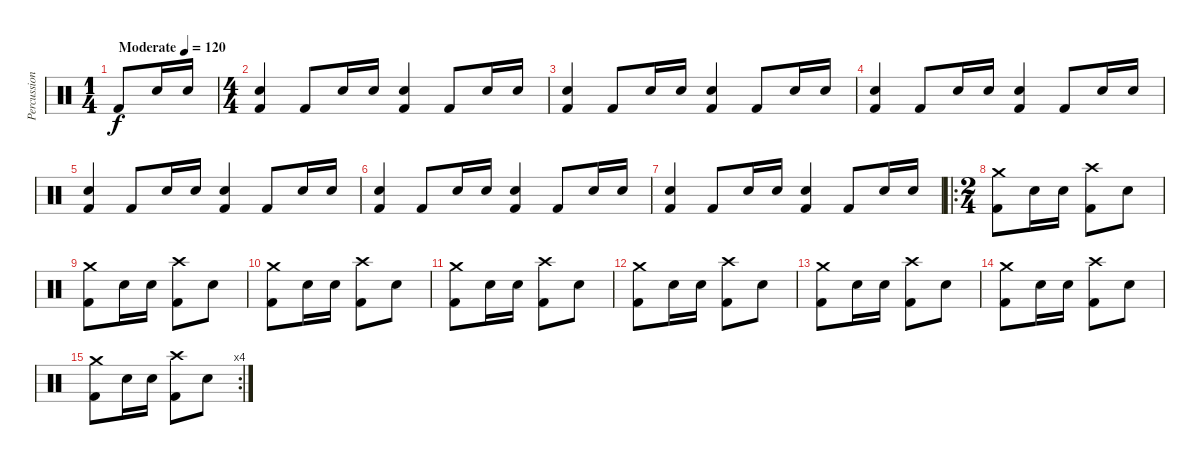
\track ("Percussion" "Percussion") {instrument percussion}
\staff {score}
\articulation defaults
\ts (1 4)
\tempo (120 "Moderate")
\clef neutral
\ks c "Kick (hit) 2".8{dy f} "Snare (hit) 2".16 "Snare (hit) 2".16
|
\ts (4 4)
("Snare (hit) 2" "Kick (hit) 2").4 "Kick (hit) 2".8 "Snare (hit) 2".16 "Snare (hit) 2".16 ("Snare (hit) 2" "Kick (hit) 2").4 "Kick (hit) 2".8 "Snare (hit) 2".16 "Snare (hit) 2".16 |
("Snare (hit) 2" "Kick (hit) 2").4 "Kick (hit) 2".8 "Snare (hit) 2".16 "Snare (hit) 2".16 ("Snare (hit) 2" "Kick (hit) 2").4 "Kick (hit) 2".8 "Snare (hit) 2".16 "Snare (hit) 2".16 |
("Snare (hit) 2" "Kick (hit) 2").4 "Kick (hit) 2".8 "Snare (hit) 2".16 "Snare (hit) 2".16 ("Snare (hit) 2" "Kick (hit) 2").4 "Kick (hit) 2".8 "Snare (hit) 2".16 "Snare (hit) 2".16 |
("Snare (hit) 2" "Kick (hit) 2").4 "Kick (hit) 2".8 "Snare (hit) 2".16 "Snare (hit) 2".16 ("Snare (hit) 2" "Kick (hit) 2").4 "Kick (hit) 2".8 "Snare (hit) 2".16 "Snare (hit) 2".16 |
("Snare (hit) 2" "Kick (hit) 2").4 "Kick (hit) 2".8 "Snare (hit) 2".16 "Snare (hit) 2".16 ("Snare (hit) 2" "Kick (hit) 2").4 "Kick (hit) 2".8 "Snare (hit) 2".16 "Snare (hit) 2".16 |
("Snare (hit) 2" "Kick (hit) 2").4 "Kick (hit) 2".8 "Snare (hit) 2".16 "Snare (hit) 2".16 ("Snare (hit) 2" "Kick (hit) 2").4 "Kick (hit) 2".8 "Snare (hit) 2".16 "Snare (hit) 2".16 |
\ro
\ts (2 4)
("Crash medium (hit)" "Kick (hit) 2").8 "Snare (hit) 2".16 "Snare (hit) 2".16 ("Crash high (hit)" "Kick (hit) 2").8 "Snare (hit) 2".8 |
("Crash medium (hit)" "Kick (hit) 2").8 "Snare (hit) 2".16 "Snare (hit) 2".16 ("Crash high (hit)" "Kick (hit) 2").8 "Snare (hit) 2".8 |
("Crash medium (hit)" "Kick (hit) 2").8 "Snare (hit) 2".16 "Snare (hit) 2".16 ("Crash high (hit)" "Kick (hit) 2").8 "Snare (hit) 2".8 |
("Crash medium (hit)" "Kick (hit) 2").8 "Snare (hit) 2".16 "Snare (hit) 2".16 ("Crash high (hit)" "Kick (hit) 2").8 "Snare (hit) 2".8 |
("Crash medium (hit)" "Kick (hit) 2").8 "Snare (hit) 2".16 "Snare (hit) 2".16 ("Crash high (hit)" "Kick (hit) 2").8 "Snare (hit) 2".8 |
("Crash medium (hit)" "Kick (hit) 2").8 "Snare (hit) 2".16 "Snare (hit) 2".16 ("Crash high (hit)" "Kick (hit) 2").8 "Snare (hit) 2".8 |
("Crash medium (hit)" "Kick (hit) 2").8 "Snare (hit) 2".16 "Snare (hit) 2".16 ("Crash high (hit)" "Kick (hit) 2").8 "Snare (hit) 2".8 |
\rc 4
("Crash medium (hit)" "Kick (hit) 2").8 "Snare (hit) 2".16 "Snare (hit) 2".16 ("Crash high (hit)" "Kick (hit) 2").8 "Snare (hit) 2".8
